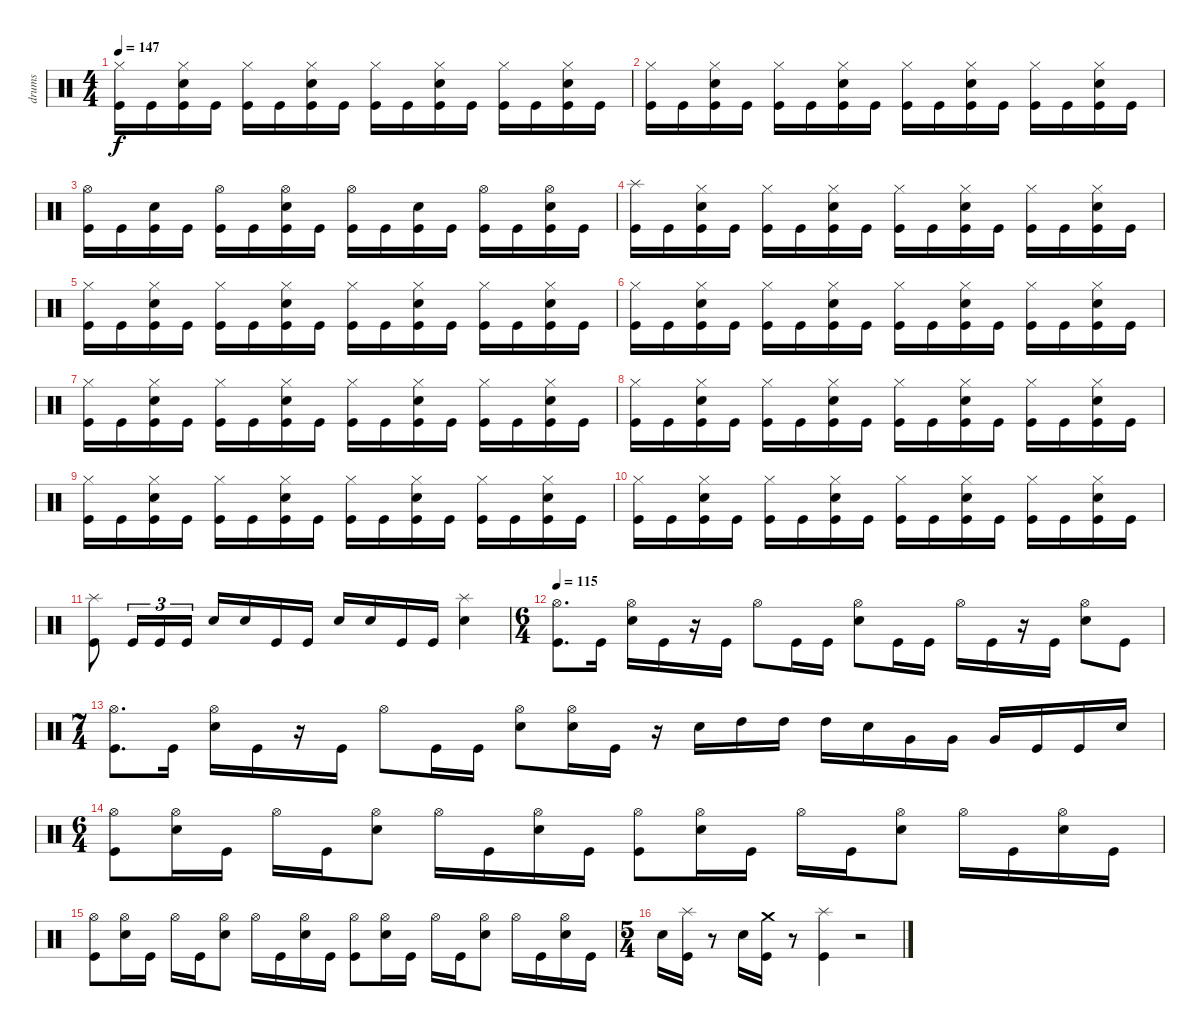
\track ("drums" "drums") {instrument percussion}
\staff {score}
\articulation defaults
\ts (4 4)
\tempo 147
\clef neutral
\ks c
("Kick (hit)" "Hi-Hat (closed)").16{dy f} "Kick (hit)".16 ("Hi-Hat (closed)" "Kick (hit)" "Snare (hit) 2").16 "Kick (hit)".16 ("Hi-Hat (closed)" "Kick (hit)").16 "Kick (hit)".16 ("Hi-Hat (closed)" "Kick (hit)" "Snare (hit) 2").16 "Kick (hit)".16 ("Kick (hit)" "Hi-Hat (closed)").16 "Kick (hit)".16 ("Kick (hit)" "Snare (hit) 2" "Hi-Hat (closed)").16 "Kick (hit)".16 ("Kick (hit)" "Hi-Hat (closed)").16 "Kick (hit)".16 ("Hi-Hat (closed)" "Kick (hit)" "Snare (hit) 2").16 "Kick (hit)".16 |
("Kick (hit)" "Hi-Hat (closed)").16 "Kick (hit)".16 ("Hi-Hat (closed)" "Snare (hit) 2" "Kick (hit)").16 "Kick (hit)".16 ("Kick (hit)" "Hi-Hat (closed)").16 "Kick (hit)".16 ("Snare (hit) 2" "Kick (hit)" "Hi-Hat (closed)").16 "Kick (hit)".16 ("Kick (hit)" "Hi-Hat (closed)").16 "Kick (hit)".16 ("Hi-Hat (closed)" "Kick (hit)" "Snare (hit) 2").16 "Kick (hit)".16 ("Hi-Hat (closed)" "Kick (hit)").16 "Kick (hit)".16 ("Kick (hit)" "Snare (hit) 2" "Hi-Hat (closed)").16 "Kick (hit)".16 |
("Kick (hit)" "Hi-Hat (open)").16 "Kick (hit)".16 ("Snare (hit) 2" "Kick (hit)").16 "Kick (hit)".16 ("Kick (hit)" "Hi-Hat (open)").16 "Kick (hit)".16 ("Hi-Hat (open)" "Kick (hit)" "Snare (hit) 2").16 "Kick (hit)".16 ("Hi-Hat (open)" "Kick (hit)").16 "Kick (hit)".16 ("Snare (hit) 2" "Kick (hit)").16 "Kick (hit)".16 ("Hi-Hat (open)" "Kick (hit)").16 "Kick (hit)".16 ("Kick (hit)" "Snare (hit) 2" "Hi-Hat (open)").16 "Kick (hit)".16 |
("Splash (hit)" "Kick (hit)").16 "Kick (hit)".16 ("Snare (hit) 2" "Hi-Hat (closed)" "Kick (hit)").16 "Kick (hit)".16 ("Hi-Hat (closed)" "Kick (hit)").16 "Kick (hit)".16 ("Kick (hit)" "Snare (hit) 2" "Hi-Hat (closed)").16 "Kick (hit)".16 ("Kick (hit)" "Hi-Hat (closed)").16 "Kick (hit)".16 ("Kick (hit)" "Snare (hit) 2" "Hi-Hat (closed)").16 "Kick (hit)".16 ("Hi-Hat (closed)" "Kick (hit)").16 "Kick (hit)".16 ("Hi-Hat (closed)" "Snare (hit) 2" "Kick (hit)").16 "Kick (hit)".16 |
("Hi-Hat (closed)" "Kick (hit)").16 "Kick (hit)".16 ("Snare (hit) 2" "Hi-Hat (closed)" "Kick (hit)").16 "Kick (hit)".16 ("Kick (hit)" "Hi-Hat (closed)").16 "Kick (hit)".16 ("Snare (hit) 2" "Kick (hit)" "Hi-Hat (closed)").16 "Kick (hit)".16 ("Kick (hit)" "Hi-Hat (closed)").16 "Kick (hit)".16 ("Hi-Hat (closed)" "Snare (hit) 2" "Kick (hit)").16 "Kick (hit)".16 ("Hi-Hat (closed)" "Kick (hit)").16 "Kick (hit)".16 ("Snare (hit) 2" "Hi-Hat (closed)" "Kick (hit)").16 "Kick (hit)".16 |
("Hi-Hat (closed)" "Kick (hit)").16 "Kick (hit)".16 ("Kick (hit)" "Snare (hit) 2" "Hi-Hat (closed)").16 "Kick (hit)".16 ("Kick (hit)" "Hi-Hat (closed)").16 "Kick (hit)".16 ("Kick (hit)" "Snare (hit) 2" "Hi-Hat (closed)").16 "Kick (hit)".16 ("Hi-Hat (closed)" "Kick (hit)").16 "Kick (hit)".16 ("Hi-Hat (closed)" "Snare (hit) 2" "Kick (hit)").16 "Kick (hit)".16 ("Hi-Hat (closed)" "Kick (hit)").16 "Kick (hit)".16 ("Snare (hit) 2" "Kick (hit)" "Hi-Hat (closed)").16 "Kick (hit)".16 |
("Kick (hit)" "Hi-Hat (closed)").16 "Kick (hit)".16 ("Hi-Hat (closed)" "Kick (hit)" "Snare (hit) 2").16 "Kick (hit)".16 ("Kick (hit)" "Hi-Hat (closed)").16 "Kick (hit)".16 ("Hi-Hat (closed)" "Snare (hit) 2" "Kick (hit)").16 "Kick (hit)".16 ("Hi-Hat (closed)" "Kick (hit)").16 "Kick (hit)".16 ("Kick (hit)" "Snare (hit) 2" "Hi-Hat (closed)").16 "Kick (hit)".16 ("Kick (hit)" "Hi-Hat (closed)").16 "Kick (hit)".16 ("Kick (hit)" "Snare (hit) 2" "Hi-Hat (closed)").16 "Kick (hit)".16 |
("Kick (hit)" "Hi-Hat (closed)").16 "Kick (hit)".16 ("Hi-Hat (closed)" "Snare (hit) 2" "Kick (hit)").16 "Kick (hit)".16 ("Hi-Hat (closed)" "Kick (hit)").16 "Kick (hit)".16 ("Snare (hit) 2" "Hi-Hat (closed)" "Kick (hit)").16 "Kick (hit)".16 ("Hi-Hat (closed)" "Kick (hit)").16 "Kick (hit)".16 ("Snare (hit) 2" "Hi-Hat (closed)" "Kick (hit)").16 "Kick (hit)".16 ("Hi-Hat (closed)" "Kick (hit)").16 "Kick (hit)".16 ("Snare (hit) 2" "Hi-Hat (closed)" "Kick (hit)").16 "Kick (hit)".16 |
("Kick (hit)" "Hi-Hat (closed)").16 "Kick (hit)".16 ("Snare (hit) 2" "Kick (hit)" "Hi-Hat (closed)").16 "Kick (hit)".16 ("Hi-Hat (closed)" "Kick (hit)").16 "Kick (hit)".16 ("Snare (hit) 2" "Hi-Hat (closed)" "Kick (hit)").16 "Kick (hit)".16 ("Kick (hit)" "Hi-Hat (closed)").16 "Kick (hit)".16 ("Kick (hit)" "Snare (hit) 2" "Hi-Hat (closed)").16 "Kick (hit)".16 ("Kick (hit)" "Hi-Hat (closed)").16 "Kick (hit)".16 ("Kick (hit)" "Snare (hit) 2" "Hi-Hat (closed)").16 "Kick (hit)".16 |
("Kick (hit)" "Hi-Hat (closed)").16 "Kick (hit)".16 ("Hi-Hat (closed)" "Kick (hit)" "Snare (hit) 2").16 "Kick (hit)".16 ("Kick (hit)" "Hi-Hat (closed)").16 "Kick (hit)".16 ("Snare (hit) 2" "Hi-Hat (closed)" "Kick (hit)").16 "Kick (hit)".16 ("Hi-Hat (closed)" "Kick (hit)").16 "Kick (hit)".16 ("Kick (hit)" "Hi-Hat (closed)" "Snare (hit) 2").16 "Kick (hit)".16 ("Hi-Hat (closed)" "Kick (hit)").16 "Kick (hit)".16 ("Hi-Hat (closed)" "Snare (hit) 2" "Kick (hit)").16 "Kick (hit)".16 |
("Splash (hit)" "Kick (hit)").8 "Kick (hit)".16{tu (3 2)} "Kick (hit)".16{tu (3 2)} "Kick (hit)".16{tu (3 2)} "Snare (hit) 2".16 "Snare (hit) 2".16 "Kick (hit)".16 "Kick (hit)".16 "Snare (hit) 2".16 "Snare (hit) 2".16 "Kick (hit)".16 "Kick (hit)".16 ("Snare (hit) 2" "Splash (hit)").4 |
\ts (6 4)
\tempo 115
("Kick (hit)" "Hi-Hat (open)").8{d} "Kick (hit)".16 ("Hi-Hat (open)" "Snare (hit) 2").16 "Kick (hit)".16 r.16 "Kick (hit)".16 "Hi-Hat (open)".8 "Kick (hit)".16 "Kick (hit)".16 ("Hi-Hat (open)" "Snare (hit) 2").8 "Kick (hit)".16 "Kick (hit)".16 "Hi-Hat (open)".16 "Kick (hit)".16 r.16 "Kick (hit)".16 ("Hi-Hat (open)" "Snare (hit) 2").8 "Kick (hit)".8 |
\ts (7 4)
("Kick (hit)" "Hi-Hat (open)").8{d} "Kick (hit)".16 ("Snare (hit) 2" "Hi-Hat (open)").16 "Kick (hit)".16 r.16 "Kick (hit)".16 "Hi-Hat (open)".8 "Kick (hit)".16 "Kick (hit)".16 ("Hi-Hat (open)" "Snare (hit) 2").8 ("Snare (hit) 2" "Hi-Hat (open)").16 "Kick (hit)".16 r.16 "Snare (hit) 2".16 "High Tom (hit)".16 "High Tom (hit)".16 "High Tom (hit)".16 "Snare (hit) 2".16 "Very Low Tom (hit)".16 "Very Low Tom (hit)".16 "Very Low Tom (hit)".16 "Kick (hit)".16 "Kick (hit)".16 "Snare (hit) 2".16 |
\ts (6 4)
("Kick (hit)" "Hi-Hat (open)").8 ("Hi-Hat (open)" "Snare (hit) 2").16 "Kick (hit)".16 "Hi-Hat (open)".16 "Kick (hit)".16 ("Hi-Hat (open)" "Snare (hit) 2").8 "Hi-Hat (open)".16 "Kick (hit)".16 ("Snare (hit) 2" "Hi-Hat (open)").16 "Kick (hit)".16 ("Kick (hit)" "Hi-Hat (open)").8 ("Snare (hit) 2" "Hi-Hat (open)").16 "Kick (hit)".16 "Hi-Hat (open)".16 "Kick (hit)".16 ("Hi-Hat (open)" "Snare (hit) 2").8 "Hi-Hat (open)".16 "Kick (hit)".16 ("Hi-Hat (open)" "Snare (hit) 2").16 "Kick (hit)".16 |
("Kick (hit)" "Hi-Hat (open)").8 ("Hi-Hat (open)" "Snare (hit) 2").16 "Kick (hit)".16 "Hi-Hat (open)".16 "Kick (hit)".16 ("Hi-Hat (open)" "Snare (hit) 2").8 "Hi-Hat (open)".16 "Kick (hit)".16 ("Hi-Hat (open)" "Snare (hit) 2").16 "Kick (hit)".16 ("Kick (hit)" "Hi-Hat (open)").8 ("Hi-Hat (open)" "Snare (hit) 2").16 "Kick (hit)".16 "Hi-Hat (open)".16 "Kick (hit)".16 ("Snare (hit) 2" "Hi-Hat (open)").8 "Hi-Hat (open)".16 "Kick (hit)".16 ("Snare (hit) 2" "Hi-Hat (open)").16 "Kick (hit)".16 |
\ts (5 4)
"Snare (hit) 2".16 ("Splash (hit)" "Kick (hit)").16 r.8 "Snare (hit) 2".16 ("Kick (hit)" "Crash medium (hit)").16 r.8 ("Kick (hit)" "Splash (hit)").4 r.2
